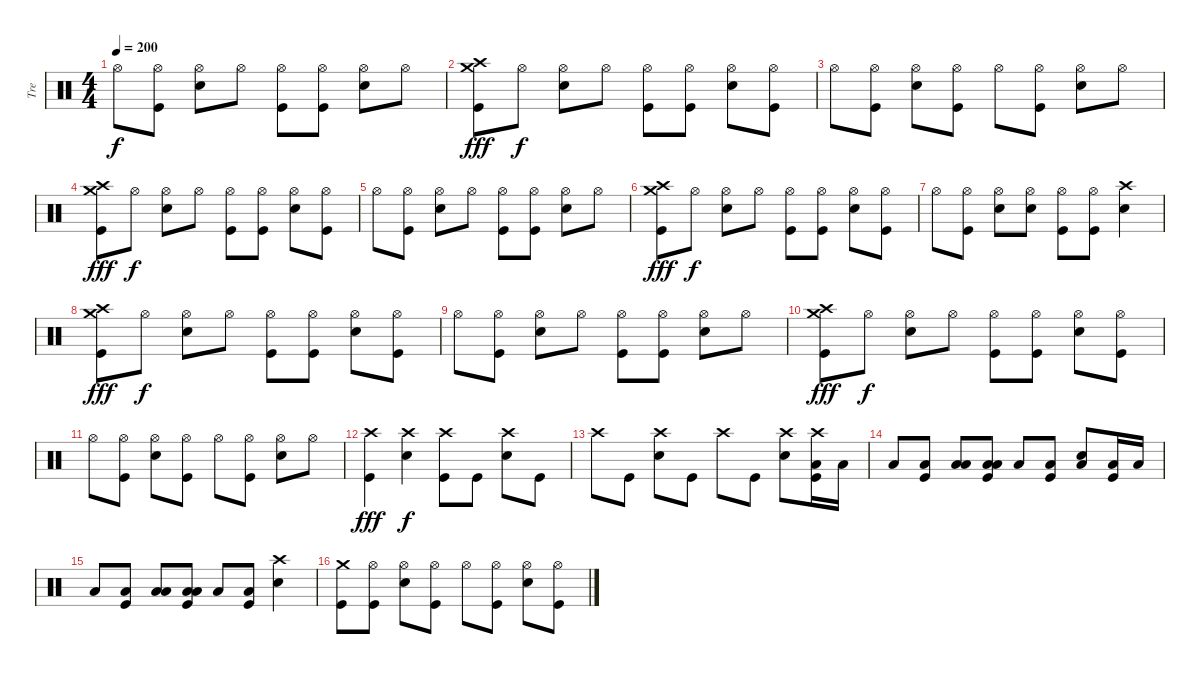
\track ("Tre" "Tre") {instrument percussion}
\staff {score}
\articulation defaults
\ts (4 4)
\tempo 200
\clef neutral
\ks c "Hi-Hat (open)".8{dy f}
("Hi-Hat (open)" "Kick (hit)").8 ("Hi-Hat (open)" "Snare (hit) 2").8 "Hi-Hat (open)".8 ("Hi-Hat (open)" "Kick (hit)").8 ("Hi-Hat (open)" "Kick (hit)").8 ("Hi-Hat (open)" "Snare (hit) 2").8 "Hi-Hat (open)".8 |
("Crash medium (hit)" "Kick (hit)" "Crash high (hit)").8{dy fff} "Hi-Hat (open)".8{dy f} ("Hi-Hat (open)" "Snare (hit) 2").8 "Hi-Hat (open)".8 ("Hi-Hat (open)" "Kick (hit)").8 ("Hi-Hat (open)" "Kick (hit)").8 ("Hi-Hat (open)" "Snare (hit) 2").8 ("Hi-Hat (open)" "Kick (hit)").8 |
"Hi-Hat (open)".8 ("Hi-Hat (open)" "Kick (hit)").8 ("Hi-Hat (open)" "Snare (hit) 2").8 ("Hi-Hat (open)" "Kick (hit)").8 "Hi-Hat (open)".8 ("Hi-Hat (open)" "Kick (hit)").8 ("Hi-Hat (open)" "Snare (hit) 2").8 "Hi-Hat (open)".8 |
("Crash medium (hit)" "Kick (hit)" "Crash high (hit)").8{dy fff} "Hi-Hat (open)".8{dy f} ("Hi-Hat (open)" "Snare (hit) 2").8 "Hi-Hat (open)".8 ("Hi-Hat (open)" "Kick (hit)").8 ("Hi-Hat (open)" "Kick (hit)").8 ("Hi-Hat (open)" "Snare (hit) 2").8 ("Hi-Hat (open)" "Kick (hit)").8 |
"Hi-Hat (open)".8 ("Hi-Hat (open)" "Kick (hit)").8 ("Hi-Hat (open)" "Snare (hit) 2").8 "Hi-Hat (open)".8 ("Hi-Hat (open)" "Kick (hit)").8 ("Hi-Hat (open)" "Kick (hit)").8 ("Hi-Hat (open)" "Snare (hit) 2").8 "Hi-Hat (open)".8 |
("Crash medium (hit)" "Kick (hit)" "Crash high (hit)").8{dy fff} "Hi-Hat (open)".8{dy f} ("Hi-Hat (open)" "Snare (hit) 2").8 "Hi-Hat (open)".8 ("Hi-Hat (open)" "Kick (hit)").8 ("Hi-Hat (open)" "Kick (hit)").8 ("Hi-Hat (open)" "Snare (hit) 2").8 ("Hi-Hat (open)" "Kick (hit)").8 |
"Hi-Hat (open)".8 ("Hi-Hat (open)" "Kick (hit)").8 ("Hi-Hat (open)" "Snare (hit) 2").8 ("Hi-Hat (open)" "Snare (hit) 2").8 ("Hi-Hat (open)" "Kick (hit)").8 ("Hi-Hat (open)" "Kick (hit)").8 ("Crash high (hit)" "Snare (hit) 2").4 |
("Crash medium (hit)" "Kick (hit)" "Crash high (hit)").8{dy fff} "Hi-Hat (open)".8{dy f} ("Hi-Hat (open)" "Snare (hit) 2").8 "Hi-Hat (open)".8 ("Hi-Hat (open)" "Kick (hit)").8 ("Hi-Hat (open)" "Kick (hit)").8 ("Hi-Hat (open)" "Snare (hit) 2").8 ("Hi-Hat (open)" "Kick (hit)").8 |
"Hi-Hat (open)".8 ("Hi-Hat (open)" "Kick (hit)").8 ("Hi-Hat (open)" "Snare (hit) 2").8 "Hi-Hat (open)".8 ("Hi-Hat (open)" "Kick (hit)").8 ("Hi-Hat (open)" "Kick (hit)").8 ("Hi-Hat (open)" "Snare (hit) 2").8 "Hi-Hat (open)".8 |
("Crash medium (hit)" "Kick (hit)" "Crash high (hit)").8{dy fff} "Hi-Hat (open)".8{dy f} ("Hi-Hat (open)" "Snare (hit) 2").8 "Hi-Hat (open)".8 ("Hi-Hat (open)" "Kick (hit)").8 ("Hi-Hat (open)" "Kick (hit)").8 ("Hi-Hat (open)" "Snare (hit) 2").8 ("Hi-Hat (open)" "Kick (hit)").8 |
"Hi-Hat (open)".8 ("Hi-Hat (open)" "Kick (hit)").8 ("Hi-Hat (open)" "Snare (hit) 2").8 ("Hi-Hat (open)" "Kick (hit)").8 "Hi-Hat (open)".8 ("Hi-Hat (open)" "Kick (hit)").8 ("Hi-Hat (open)" "Snare (hit) 2").8 "Hi-Hat (open)".8 |
("Kick (hit)" "Crash high (hit)").4{dy fff} ("Snare (hit) 2" "Crash high (hit)").4{dy f} ("Kick (hit)" "Crash high (hit)").8 "Kick (hit)".8 ("Snare (hit) 2" "Crash high (hit)").8 "Kick (hit)".8 |
"Crash high (hit)".8 "Kick (hit)".8 ("Snare (hit) 2" "Crash high (hit)").8 "Kick (hit)".8 "Crash high (hit)".8 "Kick (hit)".8 ("Snare (hit) 2" "Crash high (hit)").8 ("Crash high (hit)" "Low Floor Tom (hit)" "Kick (hit)").16 "Low Floor Tom (hit)".16 |
"Low Floor Tom (hit)".8 ("Low Floor Tom (hit)" "Kick (hit)").8 ("Low Tom (hit)" "Low Floor Tom (hit)").8 ("Low Tom (hit)" "Low Floor Tom (hit)" "Kick (hit)").8 "Low Floor Tom (hit)".8 ("Low Floor Tom (hit)" "Kick (hit)").8 ("Low Floor Tom (hit)" "Snare (hit) 2").8 ("Low Floor Tom (hit)" "Kick (hit)").16 "Low Floor Tom (hit)".16 |
"Low Floor Tom (hit)".8 ("Low Floor Tom (hit)" "Kick (hit)").8 ("Low Tom (hit)" "Low Floor Tom (hit)").8 ("Low Tom (hit)" "Low Floor Tom (hit)" "Kick (hit)").8 "Low Floor Tom (hit)".8 ("Low Floor Tom (hit)" "Kick (hit)").8 ("Snare (hit) 2" "Crash high (hit)").4 |
("Crash medium (hit)" "Kick (hit)").8 ("Hi-Hat (open)" "Kick (hit)").8 ("Hi-Hat (open)" "Snare (hit) 2").8 ("Hi-Hat (open)" "Kick (hit)").8 "Hi-Hat (open)".8 ("Hi-Hat (open)" "Kick (hit)").8 ("Hi-Hat (open)" "Snare (hit) 2").8 ("Hi-Hat (open)" "Kick (hit)").8
